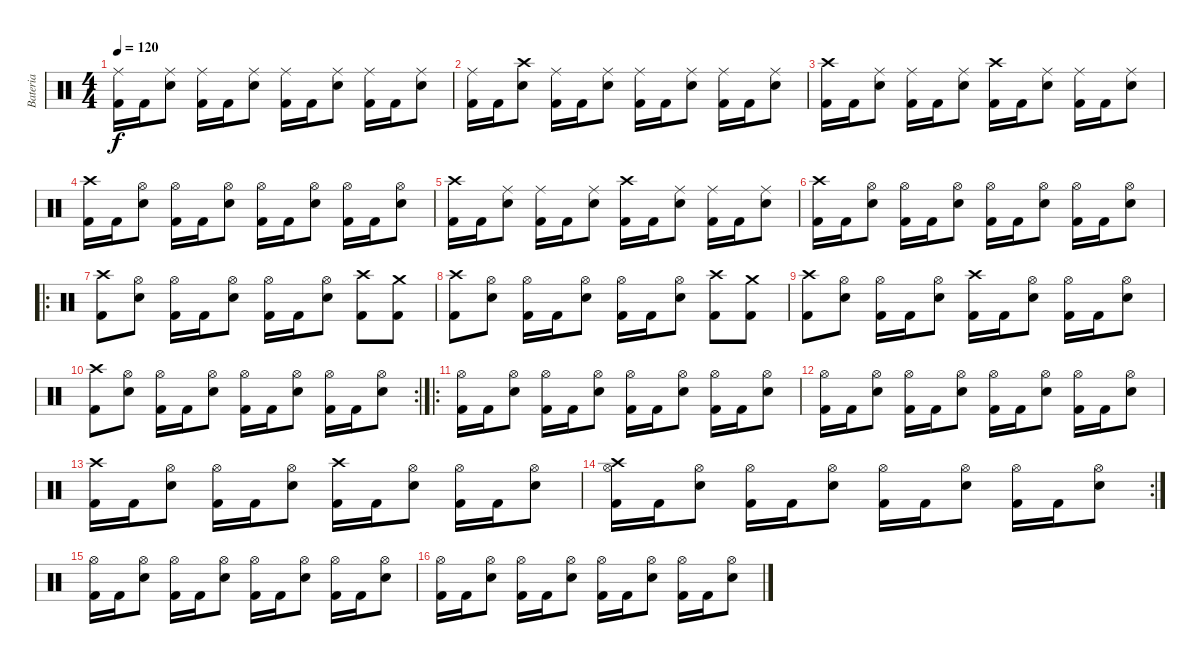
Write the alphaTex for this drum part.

\track ("Bateria" "Bateria") {instrument percussion}
\staff {score}
\articulation defaults
\ts (4 4)
\tempo 120
\clef neutral
\ks c
("Ride (middle)" "Kick (hit) 2").16{dy f} "Kick (hit) 2".16 ("Ride (middle)" "Snare (hit) 2").8 ("Ride (middle)" "Kick (hit) 2").16 "Kick (hit) 2".16 ("Ride (middle)" "Snare (hit) 2").8 ("Ride (middle)" "Kick (hit) 2").16 "Kick (hit) 2".16 ("Ride (middle)" "Snare (hit) 2").8 ("Ride (middle)" "Kick (hit) 2").16 "Kick (hit) 2".16 ("Ride (middle)" "Snare (hit) 2").8 |
("Ride (middle)" "Kick (hit) 2").16 "Kick (hit) 2".16 ("Crash high (hit)" "Snare (hit) 2").8 ("Ride (middle)" "Kick (hit) 2").16 "Kick (hit) 2".16 ("Ride (middle)" "Snare (hit) 2").8 ("Ride (middle)" "Kick (hit) 2").16 "Kick (hit) 2".16 ("Ride (middle)" "Snare (hit) 2").8 ("Ride (middle)" "Kick (hit) 2").16 "Kick (hit) 2".16 ("Ride (middle)" "Snare (hit) 2").8 |
("Crash high (hit)" "Kick (hit) 2").16 "Kick (hit) 2".16 ("Ride (middle)" "Snare (hit) 2").8 ("Ride (middle)" "Kick (hit) 2").16 "Kick (hit) 2".16 ("Ride (middle)" "Snare (hit) 2").8 ("Crash high (hit)" "Kick (hit) 2").16 "Kick (hit) 2".16 ("Ride (middle)" "Snare (hit) 2").8 ("Ride (middle)" "Kick (hit) 2").16 "Kick (hit) 2".16 ("Ride (middle)" "Snare (hit) 2").8 |
("Crash high (hit)" "Kick (hit) 2").16 "Kick (hit) 2".16 ("Hi-Hat (open)" "Snare (hit) 2").8 ("Hi-Hat (open)" "Kick (hit) 2").16 "Kick (hit) 2".16 ("Hi-Hat (open)" "Snare (hit) 2").8 ("Hi-Hat (open)" "Kick (hit) 2").16 "Kick (hit) 2".16 ("Hi-Hat (open)" "Snare (hit) 2").8 ("Hi-Hat (open)" "Kick (hit) 2").16 "Kick (hit) 2".16 ("Hi-Hat (open)" "Snare (hit) 2").8 |
("Crash high (hit)" "Kick (hit) 2").16 "Kick (hit) 2".16 ("Ride (middle)" "Snare (hit) 2").8 ("Ride (middle)" "Kick (hit) 2").16 "Kick (hit) 2".16 ("Ride (middle)" "Snare (hit) 2").8 ("Crash high (hit)" "Kick (hit) 2").16 "Kick (hit) 2".16 ("Ride (middle)" "Snare (hit) 2").8 ("Ride (middle)" "Kick (hit) 2").16 "Kick (hit) 2".16 ("Ride (middle)" "Snare (hit) 2").8 |
("Crash high (hit)" "Kick (hit) 2").16 "Kick (hit) 2".16 ("Hi-Hat (open)" "Snare (hit) 2").8 ("Hi-Hat (open)" "Kick (hit) 2").16 "Kick (hit) 2".16 ("Hi-Hat (open)" "Snare (hit) 2").8 ("Hi-Hat (open)" "Kick (hit) 2").16 "Kick (hit) 2".16 ("Hi-Hat (open)" "Snare (hit) 2").8 ("Hi-Hat (open)" "Kick (hit) 2").16 "Kick (hit) 2".16 ("Hi-Hat (open)" "Snare (hit) 2").8 |
\ro
("Crash high (hit)" "Kick (hit) 2").8 ("Hi-Hat (open)" "Snare (hit) 2").8 ("Hi-Hat (open)" "Kick (hit) 2").16 "Kick (hit) 2".16 ("Hi-Hat (open)" "Snare (hit) 2").8 ("Hi-Hat (open)" "Kick (hit) 2").16 "Kick (hit) 2".16 ("Hi-Hat (open)" "Snare (hit) 2").8 ("Crash high (hit)" "Kick (hit) 2").8 ("Crash medium (hit)" "Kick (hit) 2").8 |
("Crash high (hit)" "Kick (hit) 2").8 ("Hi-Hat (open)" "Snare (hit) 2").8 ("Hi-Hat (open)" "Kick (hit) 2").16 "Kick (hit) 2".16 ("Hi-Hat (open)" "Snare (hit) 2").8 ("Hi-Hat (open)" "Kick (hit) 2").16 "Kick (hit) 2".16 ("Hi-Hat (open)" "Snare (hit) 2").8 ("Crash high (hit)" "Kick (hit) 2").8 ("Crash medium (hit)" "Kick (hit) 2").8 |
("Crash high (hit)" "Kick (hit) 2").8 ("Hi-Hat (open)" "Snare (hit) 2").8 ("Hi-Hat (open)" "Kick (hit) 2").16 "Kick (hit) 2".16 ("Hi-Hat (open)" "Snare (hit) 2").8 ("Crash high (hit)" "Kick (hit) 2").16 "Kick (hit) 2".16 ("Hi-Hat (open)" "Snare (hit) 2").8 ("Hi-Hat (open)" "Kick (hit) 2").16 "Kick (hit) 2".16 ("Hi-Hat (open)" "Snare (hit) 2").8 |
\rc 2
("Crash high (hit)" "Kick (hit) 2").8 ("Hi-Hat (open)" "Snare (hit) 2").8 ("Hi-Hat (open)" "Kick (hit) 2").16 "Kick (hit) 2".16 ("Hi-Hat (open)" "Snare (hit) 2").8 ("Hi-Hat (open)" "Kick (hit) 2").16 "Kick (hit) 2".16 ("Hi-Hat (open)" "Snare (hit) 2").8 ("Hi-Hat (open)" "Kick (hit) 2").16 "Kick (hit) 2".16 ("Hi-Hat (open)" "Snare (hit) 2").8 |
\ro
("Hi-Hat (open)" "Kick (hit) 2").16 "Kick (hit) 2".16 ("Hi-Hat (open)" "Snare (hit) 2").8 ("Hi-Hat (open)" "Kick (hit) 2").16 "Kick (hit) 2".16 ("Hi-Hat (open)" "Snare (hit) 2").8 ("Hi-Hat (open)" "Kick (hit) 2").16 "Kick (hit) 2".16 ("Hi-Hat (open)" "Snare (hit) 2").8 ("Hi-Hat (open)" "Kick (hit) 2").16 "Kick (hit) 2".16 ("Hi-Hat (open)" "Snare (hit) 2").8 |
("Hi-Hat (open)" "Kick (hit) 2").16 "Kick (hit) 2".16 ("Hi-Hat (open)" "Snare (hit) 2").8 ("Hi-Hat (open)" "Kick (hit) 2").16 "Kick (hit) 2".16 ("Hi-Hat (open)" "Snare (hit) 2").8 ("Hi-Hat (open)" "Kick (hit) 2").16 "Kick (hit) 2".16 ("Hi-Hat (open)" "Snare (hit) 2").8 ("Hi-Hat (open)" "Kick (hit) 2").16 "Kick (hit) 2".16 ("Hi-Hat (open)" "Snare (hit) 2").8 |
("Crash high (hit)" "Kick (hit) 2").16 "Kick (hit) 2".16 ("Hi-Hat (open)" "Snare (hit) 2").8 ("Hi-Hat (open)" "Kick (hit) 2").16 "Kick (hit) 2".16 ("Hi-Hat (open)" "Snare (hit) 2").8 ("Crash high (hit)" "Kick (hit) 2").16 "Kick (hit) 2".16 ("Hi-Hat (open)" "Snare (hit) 2").8 ("Hi-Hat (open)" "Kick (hit) 2").16 "Kick (hit) 2".16 ("Hi-Hat (open)" "Snare (hit) 2").8 |
\rc 2
("Crash high (hit)" "Hi-Hat (open)" "Kick (hit) 2").16 "Kick (hit) 2".16 ("Hi-Hat (open)" "Snare (hit) 2").8 ("Hi-Hat (open)" "Kick (hit) 2").16 "Kick (hit) 2".16 ("Hi-Hat (open)" "Snare (hit) 2").8 ("Hi-Hat (open)" "Kick (hit) 2").16 "Kick (hit) 2".16 ("Hi-Hat (open)" "Snare (hit) 2").8 ("Hi-Hat (open)" "Kick (hit) 2").16 "Kick (hit) 2".16 ("Hi-Hat (open)" "Snare (hit) 2").8 |
("Hi-Hat (open)" "Kick (hit) 2").16 "Kick (hit) 2".16 ("Hi-Hat (open)" "Snare (hit) 2").8 ("Hi-Hat (open)" "Kick (hit) 2").16 "Kick (hit) 2".16 ("Hi-Hat (open)" "Snare (hit) 2").8 ("Hi-Hat (open)" "Kick (hit) 2").16 "Kick (hit) 2".16 ("Hi-Hat (open)" "Snare (hit) 2").8 ("Hi-Hat (open)" "Kick (hit) 2").16 "Kick (hit) 2".16 ("Hi-Hat (open)" "Snare (hit) 2").8 |
("Hi-Hat (open)" "Kick (hit) 2").16 "Kick (hit) 2".16 ("Hi-Hat (open)" "Snare (hit) 2").8 ("Hi-Hat (open)" "Kick (hit) 2").16 "Kick (hit) 2".16 ("Hi-Hat (open)" "Snare (hit) 2").8 ("Hi-Hat (open)" "Kick (hit) 2").16 "Kick (hit) 2".16 ("Hi-Hat (open)" "Snare (hit) 2").8 ("Hi-Hat (open)" "Kick (hit) 2").16 "Kick (hit) 2".16 ("Hi-Hat (open)" "Snare (hit) 2").8
